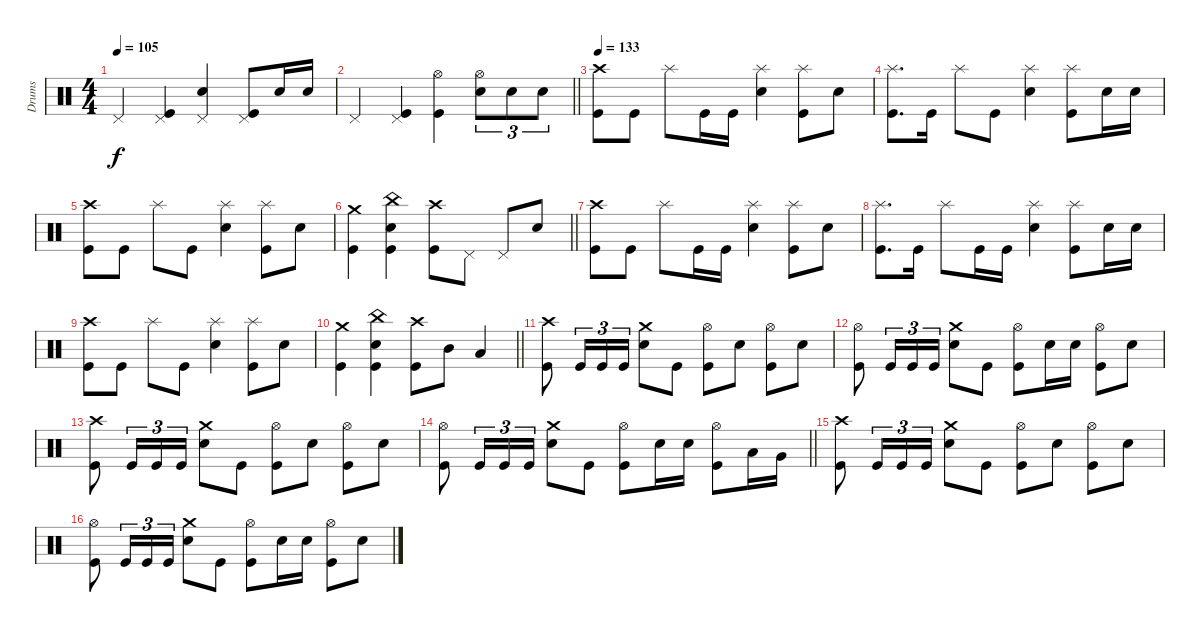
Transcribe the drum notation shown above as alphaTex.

\track ("Drums" "Drums") {instrument percussion}
\staff
\articulation defaults
\ts (4 4)
\tempo 105
\clef neutral
\ks c "Pedal Hi-Hat (hit)".4{dy f}
("Pedal Hi-Hat (hit)" "Kick (hit)").4 ("Pedal Hi-Hat (hit)" "Electric Snare (hit)").4 ("Pedal Hi-Hat (hit)" "Kick (hit)").8 "Electric Snare (hit)".16 "Electric Snare (hit)".16 |
\barLineRight lightlight "Pedal Hi-Hat (hit)".4
("Pedal Hi-Hat (hit)" "Kick (hit)").4 ("Hi-Hat (open)" "Kick (hit)").4 ("Hi-Hat (open)" "Electric Snare (hit)").8{tu (3 2)} "Electric Snare (hit)".8{tu (3 2)} "Electric Snare (hit)".8{tu (3 2)} |
\section ("" "")
\tempo 133
("Crash high (hit)" "Kick (hit)").8 "Kick (hit)".8 "Splash (hit)".8 "Kick (hit)".16 "Kick (hit)".16 ("Splash (hit)" "Electric Snare (hit)").4 ("Splash (hit)" "Kick (hit)").8 "Electric Snare (hit)".8 |
("Splash (hit)" "Kick (hit)").8{d} "Kick (hit)".16 "Splash (hit)".8 "Kick (hit)".8 ("Splash (hit)" "Electric Snare (hit)").4 ("Splash (hit)" "Kick (hit)").8 "Electric Snare (hit)".16 "Electric Snare (hit)".16 |
("Crash high (hit)" "Kick (hit)").8 "Kick (hit)".8 "Splash (hit)".8 "Kick (hit)".8 ("Splash (hit)" "Electric Snare (hit)").4 ("Splash (hit)" "Kick (hit)").8 "Electric Snare (hit)".8 |
\barLineRight lightlight
("Crash medium (hit)" "Kick (hit)").4 ("China (hit)" "Electric Snare (hit)" "Kick (hit)").4 ("Crash high (hit)" "Kick (hit)").8 "Pedal Hi-Hat (hit)".8 "Pedal Hi-Hat (hit)".8 "Electric Snare (hit)".8 |
("Crash high (hit)" "Kick (hit)").8 "Kick (hit)".8 "Splash (hit)".8 "Kick (hit)".16 "Kick (hit)".16 ("Splash (hit)" "Electric Snare (hit)").4 ("Splash (hit)" "Kick (hit)").8 "Electric Snare (hit)".8 |
("Splash (hit)" "Kick (hit)").8{d} "Kick (hit)".16 "Splash (hit)".8 "Kick (hit)".16 "Kick (hit)".16 ("Splash (hit)" "Electric Snare (hit)").4 ("Splash (hit)" "Kick (hit)").8 "Electric Snare (hit)".16 "Electric Snare (hit)".16 |
("Crash high (hit)" "Kick (hit)").8 "Kick (hit)".8 "Splash (hit)".8 "Kick (hit)".8 ("Splash (hit)" "Electric Snare (hit)").4 ("Splash (hit)" "Kick (hit)").8 "Electric Snare (hit)".8 |
\barLineRight lightlight
("Crash medium (hit)" "Kick (hit)").4 ("China (hit)" "Electric Snare (hit)" "Kick (hit)").4 ("Crash high (hit)" "Kick (hit)").8 "Mid Tom (hit)".8 "Low Tom (hit)".4 |
\section ("" "")
("Crash high (hit)" "Kick (hit)").8 "Kick (hit)".16{tu (3 2)} "Kick (hit)".16{tu (3 2)} "Kick (hit)".16{tu (3 2)} ("Crash medium (hit)" "Electric Snare (hit)").8 "Kick (hit)".8 ("Hi-Hat (open)" "Kick (hit)").8 "Electric Snare (hit)".8 ("Hi-Hat (open)" "Kick (hit)").8 "Electric Snare (hit)".8 |
("Hi-Hat (open)" "Kick (hit)").8 "Kick (hit)".16{tu (3 2)} "Kick (hit)".16{tu (3 2)} "Kick (hit)".16{tu (3 2)} ("Crash medium (hit)" "Electric Snare (hit)").8 "Kick (hit)".8 ("Hi-Hat (open)" "Kick (hit)").8 "Electric Snare (hit)".16 "Electric Snare (hit)".16 ("Hi-Hat (open)" "Kick (hit)").8 "Electric Snare (hit)".8 |
("Crash high (hit)" "Kick (hit)").8 "Kick (hit)".16{tu (3 2)} "Kick (hit)".16{tu (3 2)} "Kick (hit)".16{tu (3 2)} ("Crash medium (hit)" "Electric Snare (hit)").8 "Kick (hit)".8 ("Hi-Hat (open)" "Kick (hit)").8 "Electric Snare (hit)".8 ("Hi-Hat (open)" "Kick (hit)").8 "Electric Snare (hit)".8 |
\barLineRight lightlight
("Hi-Hat (open)" "Kick (hit)").8 "Kick (hit)".16{tu (3 2)} "Kick (hit)".16{tu (3 2)} "Kick (hit)".16{tu (3 2)} ("Crash medium (hit)" "Electric Snare (hit)").8 "Kick (hit)".8 ("Hi-Hat (open)" "Kick (hit)").8 "Electric Snare (hit)".16 "Electric Snare (hit)".16 ("Hi-Hat (open)" "Kick (hit)").8 "Low Tom (hit)".16 "Very Low Tom (hit)".16 |
("Crash high (hit)" "Kick (hit)").8 "Kick (hit)".16{tu (3 2)} "Kick (hit)".16{tu (3 2)} "Kick (hit)".16{tu (3 2)} ("Crash medium (hit)" "Electric Snare (hit)").8 "Kick (hit)".8 ("Hi-Hat (open)" "Kick (hit)").8 "Electric Snare (hit)".8 ("Hi-Hat (open)" "Kick (hit)").8 "Electric Snare (hit)".8 |
("Hi-Hat (open)" "Kick (hit)").8 "Kick (hit)".16{tu (3 2)} "Kick (hit)".16{tu (3 2)} "Kick (hit)".16{tu (3 2)} ("Crash medium (hit)" "Electric Snare (hit)").8 "Kick (hit)".8 ("Hi-Hat (open)" "Kick (hit)").8 "Electric Snare (hit)".16 "Electric Snare (hit)".16 ("Hi-Hat (open)" "Kick (hit)").8 "Electric Snare (hit)".8
